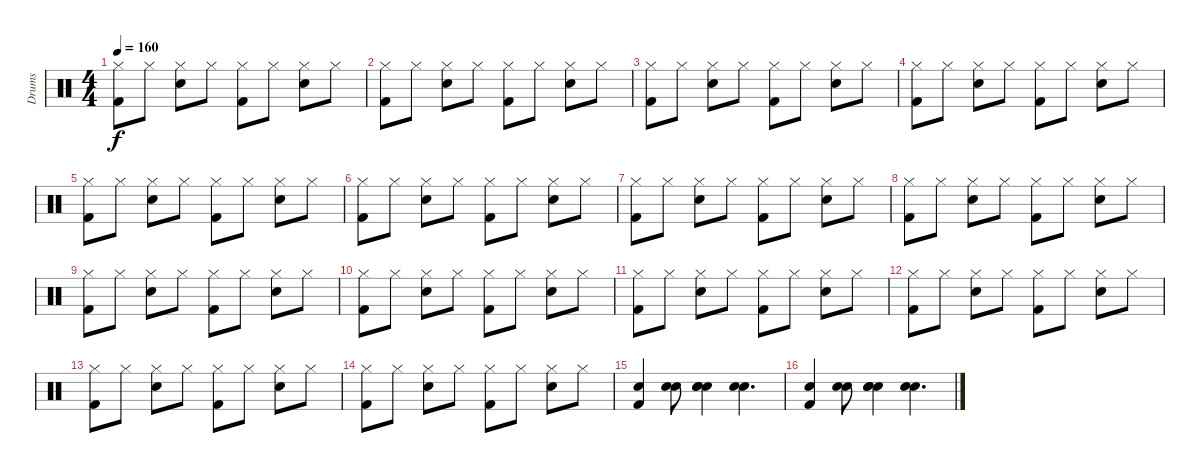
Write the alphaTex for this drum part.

\track ("Drums" "Drums") {instrument percussion}
\staff {score}
\articulation defaults
\ts (4 4)
\tempo 160
\clef neutral
\ks c
("Kick (hit) 2" "Hi-Hat (closed)").8{dy f} "Hi-Hat (closed)".8 ("Electric Snare (hit)" "Hi-Hat (closed)").8 "Hi-Hat (closed)".8 ("Kick (hit) 2" "Hi-Hat (closed)").8 "Hi-Hat (closed)".8 ("Electric Snare (hit)" "Hi-Hat (closed)").8 "Hi-Hat (closed)".8 |
("Kick (hit) 2" "Hi-Hat (closed)").8 "Hi-Hat (closed)".8 ("Electric Snare (hit)" "Hi-Hat (closed)").8 "Hi-Hat (closed)".8 ("Kick (hit) 2" "Hi-Hat (closed)").8 "Hi-Hat (closed)".8 ("Electric Snare (hit)" "Hi-Hat (closed)").8 "Hi-Hat (closed)".8 |
("Kick (hit) 2" "Hi-Hat (closed)").8 "Hi-Hat (closed)".8 ("Electric Snare (hit)" "Hi-Hat (closed)").8 "Hi-Hat (closed)".8 ("Kick (hit) 2" "Hi-Hat (closed)").8 "Hi-Hat (closed)".8 ("Electric Snare (hit)" "Hi-Hat (closed)").8 "Hi-Hat (closed)".8 |
("Kick (hit) 2" "Hi-Hat (closed)").8 "Hi-Hat (closed)".8 ("Electric Snare (hit)" "Hi-Hat (closed)").8 "Hi-Hat (closed)".8 ("Kick (hit) 2" "Hi-Hat (closed)").8 "Hi-Hat (closed)".8 ("Electric Snare (hit)" "Hi-Hat (closed)").8 "Hi-Hat (closed)".8 |
("Kick (hit) 2" "Hi-Hat (closed)").8 "Hi-Hat (closed)".8 ("Electric Snare (hit)" "Hi-Hat (closed)").8 "Hi-Hat (closed)".8 ("Kick (hit) 2" "Hi-Hat (closed)").8 "Hi-Hat (closed)".8 ("Electric Snare (hit)" "Hi-Hat (closed)").8 "Hi-Hat (closed)".8 |
("Kick (hit) 2" "Hi-Hat (closed)").8 "Hi-Hat (closed)".8 ("Electric Snare (hit)" "Hi-Hat (closed)").8 "Hi-Hat (closed)".8 ("Kick (hit) 2" "Hi-Hat (closed)").8 "Hi-Hat (closed)".8 ("Electric Snare (hit)" "Hi-Hat (closed)").8 "Hi-Hat (closed)".8 |
("Kick (hit) 2" "Hi-Hat (closed)").8 "Hi-Hat (closed)".8 ("Electric Snare (hit)" "Hi-Hat (closed)").8 "Hi-Hat (closed)".8 ("Kick (hit) 2" "Hi-Hat (closed)").8 "Hi-Hat (closed)".8 ("Electric Snare (hit)" "Hi-Hat (closed)").8 "Hi-Hat (closed)".8 |
("Kick (hit) 2" "Hi-Hat (closed)").8 "Hi-Hat (closed)".8 ("Electric Snare (hit)" "Hi-Hat (closed)").8 "Hi-Hat (closed)".8 ("Kick (hit) 2" "Hi-Hat (closed)").8 "Hi-Hat (closed)".8 ("Electric Snare (hit)" "Hi-Hat (closed)").8 "Hi-Hat (closed)".8 |
("Kick (hit) 2" "Hi-Hat (closed)").8 "Hi-Hat (closed)".8 ("Electric Snare (hit)" "Hi-Hat (closed)").8 "Hi-Hat (closed)".8 ("Kick (hit) 2" "Hi-Hat (closed)").8 "Hi-Hat (closed)".8 ("Electric Snare (hit)" "Hi-Hat (closed)").8 "Hi-Hat (closed)".8 |
("Kick (hit) 2" "Hi-Hat (closed)").8 "Hi-Hat (closed)".8 ("Electric Snare (hit)" "Hi-Hat (closed)").8 "Hi-Hat (closed)".8 ("Kick (hit) 2" "Hi-Hat (closed)").8 "Hi-Hat (closed)".8 ("Electric Snare (hit)" "Hi-Hat (closed)").8 "Hi-Hat (closed)".8 |
("Kick (hit) 2" "Hi-Hat (closed)").8 "Hi-Hat (closed)".8 ("Electric Snare (hit)" "Hi-Hat (closed)").8 "Hi-Hat (closed)".8 ("Kick (hit) 2" "Hi-Hat (closed)").8 "Hi-Hat (closed)".8 ("Electric Snare (hit)" "Hi-Hat (closed)").8 "Hi-Hat (closed)".8 |
("Kick (hit) 2" "Hi-Hat (closed)").8 "Hi-Hat (closed)".8 ("Electric Snare (hit)" "Hi-Hat (closed)").8 "Hi-Hat (closed)".8 ("Kick (hit) 2" "Hi-Hat (closed)").8 "Hi-Hat (closed)".8 ("Electric Snare (hit)" "Hi-Hat (closed)").8 "Hi-Hat (closed)".8 |
("Kick (hit) 2" "Hi-Hat (closed)").8 "Hi-Hat (closed)".8 ("Electric Snare (hit)" "Hi-Hat (closed)").8 "Hi-Hat (closed)".8 ("Kick (hit) 2" "Hi-Hat (closed)").8 "Hi-Hat (closed)".8 ("Electric Snare (hit)" "Hi-Hat (closed)").8 "Hi-Hat (closed)".8 |
("Kick (hit) 2" "Hi-Hat (closed)").8 "Hi-Hat (closed)".8 ("Electric Snare (hit)" "Hi-Hat (closed)").8 "Hi-Hat (closed)".8 ("Kick (hit) 2" "Hi-Hat (closed)").8 "Hi-Hat (closed)".8 ("Electric Snare (hit)" "Hi-Hat (closed)").8 "Hi-Hat (closed)".8 |
("Kick (hit) 2" "Electric Snare (hit)").4 ("Hand Clap (hit)" "Hand Clap (hit)").8 ("Hand Clap (hit)" "Hand Clap (hit)" "Electric Snare (hit)").4 ("Hand Clap (hit)" "Hand Clap (hit)").4{d} |
("Kick (hit) 2" "Electric Snare (hit)").4 ("Hand Clap (hit)" "Hand Clap (hit)").8 ("Hand Clap (hit)" "Hand Clap (hit)" "Electric Snare (hit)").4 ("Hand Clap (hit)" "Hand Clap (hit)").4{d}
